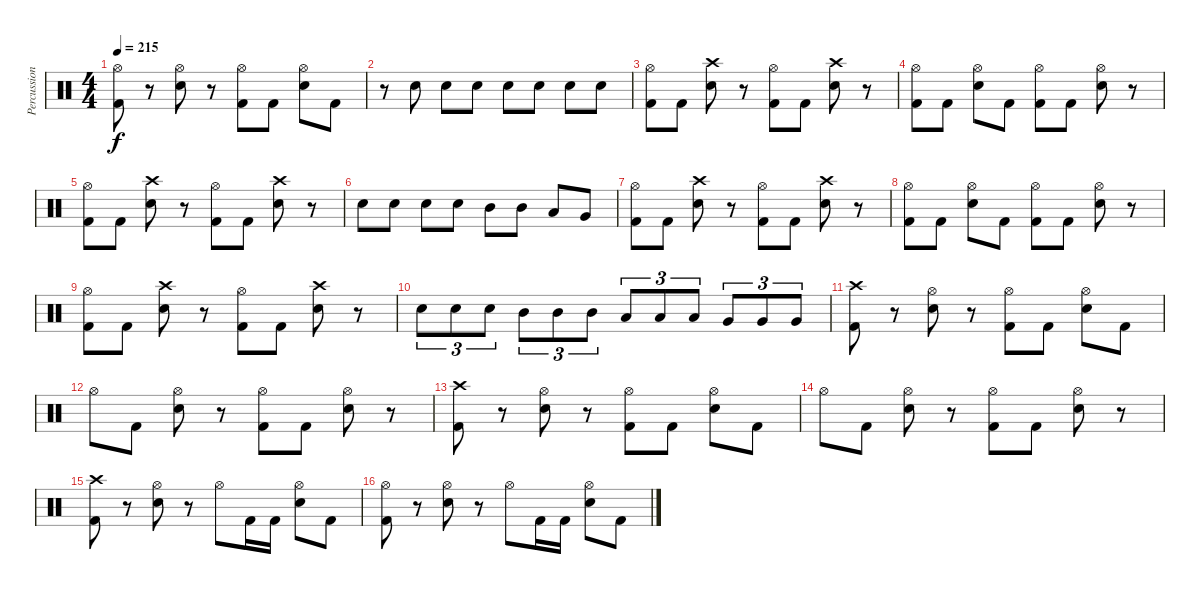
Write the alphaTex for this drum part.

\track ("Percussion" "Percussion") {instrument percussion}
\staff {score}
\articulation defaults
\ts (4 4)
\tempo 215
\clef neutral
\ks c
("Hi-Hat (open)" "Kick (hit) 2").8{dy f} r.8 ("Hi-Hat (open)" "Snare (hit) 2").8 r.8 ("Hi-Hat (open)" "Kick (hit) 2").8 "Kick (hit) 2".8 ("Hi-Hat (open)" "Snare (hit) 2").8 "Kick (hit) 2".8 |
r.8 "Snare (hit) 2".8 "Snare (hit) 2".8 "Snare (hit) 2".8 "Snare (hit) 2".8 "Snare (hit) 2".8 "Snare (hit) 2".8 "Snare (hit) 2".8 |
("Hi-Hat (open)" "Kick (hit) 2").8 "Kick (hit) 2".8 ("Crash high (hit)" "Snare (hit) 2").8 r.8 ("Hi-Hat (open)" "Kick (hit) 2").8 "Kick (hit) 2".8 ("Crash high (hit)" "Snare (hit) 2").8 r.8 |
("Hi-Hat (open)" "Kick (hit) 2").8 "Kick (hit) 2".8 ("Hi-Hat (open)" "Snare (hit) 2").8 "Kick (hit) 2".8 ("Hi-Hat (open)" "Kick (hit) 2").8 "Kick (hit) 2".8 ("Hi-Hat (open)" "Snare (hit) 2").8 r.8 |
("Hi-Hat (open)" "Kick (hit) 2").8 "Kick (hit) 2".8 ("Crash high (hit)" "Snare (hit) 2").8 r.8 ("Hi-Hat (open)" "Kick (hit) 2").8 "Kick (hit) 2".8 ("Crash high (hit)" "Snare (hit) 2").8 r.8 |
"Snare (hit) 2".8 "Snare (hit) 2".8 "Snare (hit) 2".8 "Snare (hit) 2".8 "Mid Tom (hit)".8 "Mid Tom (hit)".8 "Low Tom (hit)".8 "Very Low Tom (hit)".8 |
("Hi-Hat (open)" "Kick (hit) 2").8 "Kick (hit) 2".8 ("Crash high (hit)" "Snare (hit) 2").8 r.8 ("Hi-Hat (open)" "Kick (hit) 2").8 "Kick (hit) 2".8 ("Crash high (hit)" "Snare (hit) 2").8 r.8 |
("Hi-Hat (open)" "Kick (hit) 2").8 "Kick (hit) 2".8 ("Hi-Hat (open)" "Snare (hit) 2").8 "Kick (hit) 2".8 ("Hi-Hat (open)" "Kick (hit) 2").8 "Kick (hit) 2".8 ("Hi-Hat (open)" "Snare (hit) 2").8 r.8 |
("Hi-Hat (open)" "Kick (hit) 2").8 "Kick (hit) 2".8 ("Crash high (hit)" "Snare (hit) 2").8 r.8 ("Hi-Hat (open)" "Kick (hit) 2").8 "Kick (hit) 2".8 ("Crash high (hit)" "Snare (hit) 2").8 r.8 |
"Snare (hit) 2".8{tu (3 2)} "Snare (hit) 2".8{tu (3 2)} "Snare (hit) 2".8{tu (3 2)} "Mid Tom (hit)".8{tu (3 2)} "Mid Tom (hit)".8{tu (3 2)} "Mid Tom (hit)".8{tu (3 2)} "Low Tom (hit)".8{tu (3 2)} "Low Tom (hit)".8{tu (3 2)} "Low Tom (hit)".8{tu (3 2)} "Very Low Tom (hit)".8{tu (3 2)} "Very Low Tom (hit)".8{tu (3 2)} "Very Low Tom (hit)".8{tu (3 2)} |
("Crash high (hit)" "Kick (hit) 2").8 r.8 ("Hi-Hat (open)" "Snare (hit) 2").8 r.8 ("Hi-Hat (open)" "Kick (hit) 2").8 "Kick (hit) 2".8 ("Hi-Hat (open)" "Snare (hit) 2").8 "Kick (hit) 2".8 |
"Hi-Hat (open)".8 "Kick (hit) 2".8 ("Hi-Hat (open)" "Snare (hit) 2").8 r.8 ("Hi-Hat (open)" "Kick (hit) 2").8 "Kick (hit) 2".8 ("Hi-Hat (open)" "Snare (hit) 2").8 r.8 |
("Crash high (hit)" "Kick (hit) 2").8 r.8 ("Hi-Hat (open)" "Snare (hit) 2").8 r.8 ("Hi-Hat (open)" "Kick (hit) 2").8 "Kick (hit) 2".8 ("Hi-Hat (open)" "Snare (hit) 2").8 "Kick (hit) 2".8 |
"Hi-Hat (open)".8 "Kick (hit) 2".8 ("Hi-Hat (open)" "Snare (hit) 2").8 r.8 ("Hi-Hat (open)" "Kick (hit) 2").8 "Kick (hit) 2".8 ("Hi-Hat (open)" "Snare (hit) 2").8 r.8 |
("Crash high (hit)" "Kick (hit) 2").8 r.8 ("Hi-Hat (open)" "Snare (hit) 2").8 r.8 "Hi-Hat (open)".8 "Kick (hit) 2".16 "Kick (hit) 2".16 ("Hi-Hat (open)" "Snare (hit) 2").8 "Kick (hit) 2".8 |
("Hi-Hat (open)" "Kick (hit) 2").8 r.8 ("Hi-Hat (open)" "Snare (hit) 2").8 r.8 "Hi-Hat (open)".8 "Kick (hit) 2".16 "Kick (hit) 2".16 ("Hi-Hat (open)" "Snare (hit) 2").8 "Kick (hit) 2".8
